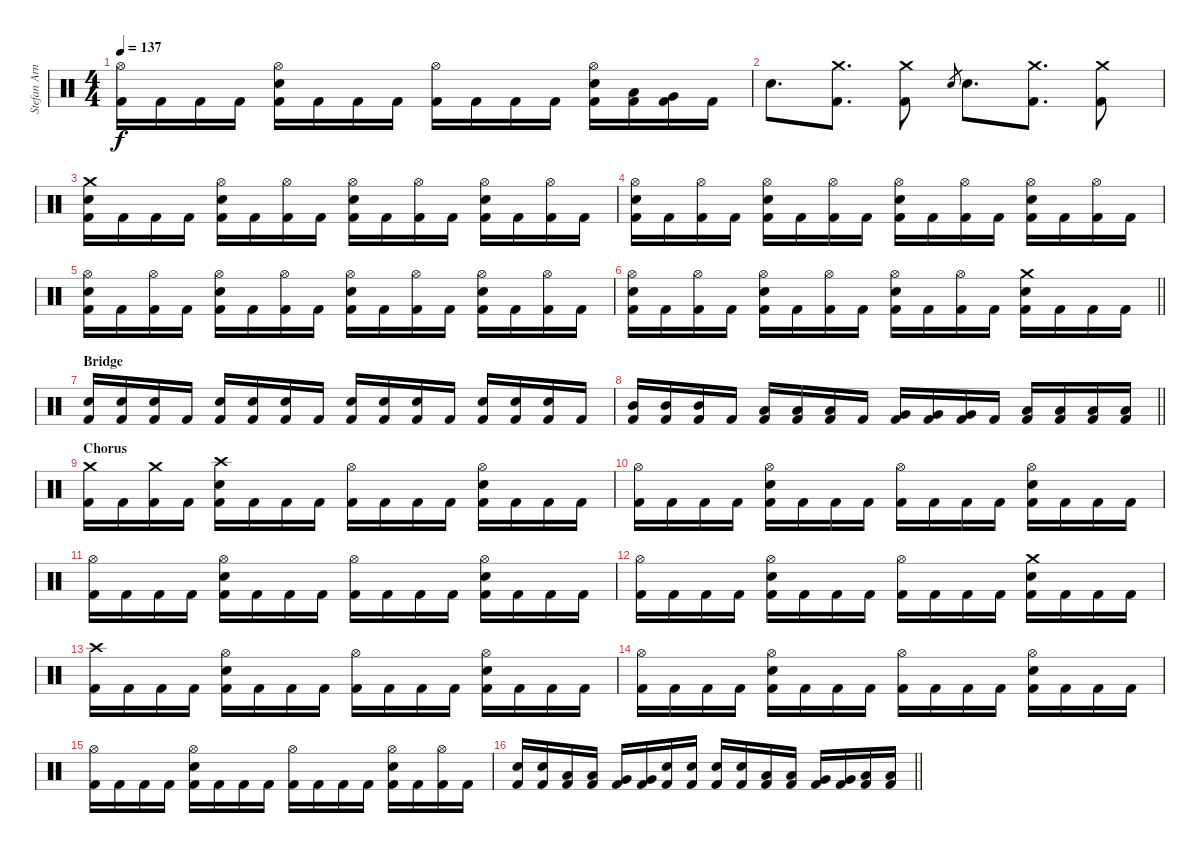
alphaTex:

\track ("Stefan Arnold" "Stefan Arn") {instrument percussion}
\staff {score}
\articulation defaults
\ts (4 4)
\tempo 137
\clef neutral
\ks c
("Hi-Hat (open)" "Kick (hit) 2").16{dy f} "Kick (hit) 2".16 "Kick (hit) 2".16 "Kick (hit) 2".16 ("Hi-Hat (open)" "Electric Snare (hit)" "Kick (hit) 2").16 "Kick (hit) 2".16 "Kick (hit) 2".16 "Kick (hit) 2".16 ("Hi-Hat (open)" "Kick (hit) 2").16 "Kick (hit) 2".16 "Kick (hit) 2".16 "Kick (hit) 2".16 ("Hi-Hat (open)" "Electric Snare (hit)" "Kick (hit) 2").16 ("Low Tom (hit)" "Kick (hit) 2").16 ("Very Low Tom (hit)" "Kick (hit) 2").16 "Kick (hit) 2".16 |
"Electric Snare (hit)".8{d} ("Crash medium (hit)" "Kick (hit) 2").8{d} ("Crash medium (hit)" "Kick (hit) 2").8 "Electric Snare (hit)".8{gr} "Electric Snare (hit)".8{d} ("Crash medium (hit)" "Kick (hit) 2").8{d} ("Crash medium (hit)" "Kick (hit) 2").8 |
("Crash medium (hit)" "Electric Snare (hit)" "Kick (hit) 2").16 "Kick (hit) 2".16 "Kick (hit) 2".16 "Kick (hit) 2".16 ("Hi-Hat (open)" "Electric Snare (hit)" "Kick (hit) 2").16 "Kick (hit) 2".16 ("Hi-Hat (open)" "Kick (hit) 2").16 "Kick (hit) 2".16 ("Hi-Hat (open)" "Electric Snare (hit)" "Kick (hit) 2").16 "Kick (hit) 2".16 ("Hi-Hat (open)" "Kick (hit) 2").16 "Kick (hit) 2".16 ("Hi-Hat (open)" "Electric Snare (hit)" "Kick (hit) 2").16 "Kick (hit) 2".16 ("Hi-Hat (open)" "Kick (hit) 2").16 "Kick (hit) 2".16 |
("Hi-Hat (open)" "Electric Snare (hit)" "Kick (hit) 2").16 "Kick (hit) 2".16 ("Hi-Hat (open)" "Kick (hit) 2").16 "Kick (hit) 2".16 ("Hi-Hat (open)" "Electric Snare (hit)" "Kick (hit) 2").16 "Kick (hit) 2".16 ("Hi-Hat (open)" "Kick (hit) 2").16 "Kick (hit) 2".16 ("Hi-Hat (open)" "Electric Snare (hit)" "Kick (hit) 2").16 "Kick (hit) 2".16 ("Hi-Hat (open)" "Kick (hit) 2").16 "Kick (hit) 2".16 ("Hi-Hat (open)" "Electric Snare (hit)" "Kick (hit) 2").16 "Kick (hit) 2".16 ("Hi-Hat (open)" "Kick (hit) 2").16 "Kick (hit) 2".16 |
("Hi-Hat (open)" "Electric Snare (hit)" "Kick (hit) 2").16 "Kick (hit) 2".16 ("Hi-Hat (open)" "Kick (hit) 2").16 "Kick (hit) 2".16 ("Hi-Hat (open)" "Electric Snare (hit)" "Kick (hit) 2").16 "Kick (hit) 2".16 ("Hi-Hat (open)" "Kick (hit) 2").16 "Kick (hit) 2".16 ("Hi-Hat (open)" "Electric Snare (hit)" "Kick (hit) 2").16 "Kick (hit) 2".16 ("Hi-Hat (open)" "Kick (hit) 2").16 "Kick (hit) 2".16 ("Hi-Hat (open)" "Electric Snare (hit)" "Kick (hit) 2").16 "Kick (hit) 2".16 ("Hi-Hat (open)" "Kick (hit) 2").16 "Kick (hit) 2".16 |
\barLineRight lightlight
("Hi-Hat (open)" "Electric Snare (hit)" "Kick (hit) 2").16 "Kick (hit) 2".16 ("Hi-Hat (open)" "Kick (hit) 2").16 "Kick (hit) 2".16 ("Hi-Hat (open)" "Electric Snare (hit)" "Kick (hit) 2").16 "Kick (hit) 2".16 ("Hi-Hat (open)" "Kick (hit) 2").16 "Kick (hit) 2".16 ("Hi-Hat (open)" "Electric Snare (hit)" "Kick (hit) 2").16 "Kick (hit) 2".16 ("Hi-Hat (open)" "Kick (hit) 2").16 "Kick (hit) 2".16 ("Crash medium (hit)" "Electric Snare (hit)" "Kick (hit) 2").16 "Kick (hit) 2".16 "Kick (hit) 2".16 "Kick (hit) 2".16 |
\section ("" "Bridge")
("Electric Snare (hit)" "Kick (hit) 2").16 ("Electric Snare (hit)" "Kick (hit) 2").16 ("Electric Snare (hit)" "Kick (hit) 2").16 "Kick (hit) 2".16 ("Electric Snare (hit)" "Kick (hit) 2").16 ("Electric Snare (hit)" "Kick (hit) 2").16 ("Electric Snare (hit)" "Kick (hit) 2").16 "Kick (hit) 2".16 ("Electric Snare (hit)" "Kick (hit) 2").16 ("Electric Snare (hit)" "Kick (hit) 2").16 ("Electric Snare (hit)" "Kick (hit) 2").16 "Kick (hit) 2".16 ("Electric Snare (hit)" "Kick (hit) 2").16 ("Electric Snare (hit)" "Kick (hit) 2").16 ("Electric Snare (hit)" "Kick (hit) 2").16 "Kick (hit) 2".16 |
\barLineRight lightlight
("Mid Tom (hit)" "Kick (hit) 2").16 ("Mid Tom (hit)" "Kick (hit) 2").16 ("Mid Tom (hit)" "Kick (hit) 2").16 "Kick (hit) 2".16 ("Low Tom (hit)" "Kick (hit) 2").16 ("Low Tom (hit)" "Kick (hit) 2").16 ("Low Tom (hit)" "Kick (hit) 2").16 "Kick (hit) 2".16 ("Very Low Tom (hit)" "Kick (hit) 2").16 ("Very Low Tom (hit)" "Kick (hit) 2").16 ("Very Low Tom (hit)" "Kick (hit) 2").16 "Kick (hit) 2".16 ("Low Floor Tom (hit)" "Kick (hit) 2").16 ("Low Floor Tom (hit)" "Kick (hit) 2").16 ("Low Floor Tom (hit)" "Kick (hit) 2").16 ("Low Floor Tom (hit)" "Kick (hit) 2").16 |
\section ("" "Chorus")
("Crash medium (hit)" "Kick (hit) 2").16 "Kick (hit) 2".16 ("Crash medium (hit)" "Kick (hit) 2").16 "Kick (hit) 2".16 ("Crash high (hit)" "Electric Snare (hit)" "Kick (hit) 2").16 "Kick (hit) 2".16 "Kick (hit) 2".16 "Kick (hit) 2".16 ("Hi-Hat (open)" "Kick (hit) 2").16 "Kick (hit) 2".16 "Kick (hit) 2".16 "Kick (hit) 2".16 ("Hi-Hat (open)" "Electric Snare (hit)" "Kick (hit) 2").16 "Kick (hit) 2".16 "Kick (hit) 2".16 "Kick (hit) 2".16 |
("Hi-Hat (open)" "Kick (hit) 2").16 "Kick (hit) 2".16 "Kick (hit) 2".16 "Kick (hit) 2".16 ("Hi-Hat (open)" "Electric Snare (hit)" "Kick (hit) 2").16 "Kick (hit) 2".16 "Kick (hit) 2".16 "Kick (hit) 2".16 ("Hi-Hat (open)" "Kick (hit) 2").16 "Kick (hit) 2".16 "Kick (hit) 2".16 "Kick (hit) 2".16 ("Hi-Hat (open)" "Electric Snare (hit)" "Kick (hit) 2").16 "Kick (hit) 2".16 "Kick (hit) 2".16 "Kick (hit) 2".16 |
("Hi-Hat (open)" "Kick (hit) 2").16 "Kick (hit) 2".16 "Kick (hit) 2".16 "Kick (hit) 2".16 ("Hi-Hat (open)" "Electric Snare (hit)" "Kick (hit) 2").16 "Kick (hit) 2".16 "Kick (hit) 2".16 "Kick (hit) 2".16 ("Hi-Hat (open)" "Kick (hit) 2").16 "Kick (hit) 2".16 "Kick (hit) 2".16 "Kick (hit) 2".16 ("Hi-Hat (open)" "Electric Snare (hit)" "Kick (hit) 2").16 "Kick (hit) 2".16 "Kick (hit) 2".16 "Kick (hit) 2".16 |
("Hi-Hat (open)" "Kick (hit) 2").16 "Kick (hit) 2".16 "Kick (hit) 2".16 "Kick (hit) 2".16 ("Hi-Hat (open)" "Electric Snare (hit)" "Kick (hit) 2").16 "Kick (hit) 2".16 "Kick (hit) 2".16 "Kick (hit) 2".16 ("Hi-Hat (open)" "Kick (hit) 2").16 "Kick (hit) 2".16 "Kick (hit) 2".16 "Kick (hit) 2".16 ("Crash medium (hit)" "Electric Snare (hit)" "Kick (hit) 2").16 "Kick (hit) 2".16 "Kick (hit) 2".16 "Kick (hit) 2".16 |
("Crash high (hit)" "Kick (hit) 2").16 "Kick (hit) 2".16 "Kick (hit) 2".16 "Kick (hit) 2".16 ("Hi-Hat (open)" "Electric Snare (hit)" "Kick (hit) 2").16 "Kick (hit) 2".16 "Kick (hit) 2".16 "Kick (hit) 2".16 ("Hi-Hat (open)" "Kick (hit) 2").16 "Kick (hit) 2".16 "Kick (hit) 2".16 "Kick (hit) 2".16 ("Hi-Hat (open)" "Electric Snare (hit)" "Kick (hit) 2").16 "Kick (hit) 2".16 "Kick (hit) 2".16 "Kick (hit) 2".16 |
("Hi-Hat (open)" "Kick (hit) 2").16 "Kick (hit) 2".16 "Kick (hit) 2".16 "Kick (hit) 2".16 ("Hi-Hat (open)" "Electric Snare (hit)" "Kick (hit) 2").16 "Kick (hit) 2".16 "Kick (hit) 2".16 "Kick (hit) 2".16 ("Hi-Hat (open)" "Kick (hit) 2").16 "Kick (hit) 2".16 "Kick (hit) 2".16 "Kick (hit) 2".16 ("Hi-Hat (open)" "Electric Snare (hit)" "Kick (hit) 2").16 "Kick (hit) 2".16 "Kick (hit) 2".16 "Kick (hit) 2".16 |
("Hi-Hat (open)" "Kick (hit) 2").16 "Kick (hit) 2".16 "Kick (hit) 2".16 "Kick (hit) 2".16 ("Hi-Hat (open)" "Electric Snare (hit)" "Kick (hit) 2").16 "Kick (hit) 2".16 "Kick (hit) 2".16 "Kick (hit) 2".16 ("Hi-Hat (open)" "Kick (hit) 2").16 "Kick (hit) 2".16 "Kick (hit) 2".16 "Kick (hit) 2".16 ("Hi-Hat (open)" "Electric Snare (hit)" "Kick (hit) 2").16 "Kick (hit) 2".16 ("Hi-Hat (open)" "Kick (hit) 2").16 "Kick (hit) 2".16 |
\barLineRight lightlight
("Electric Snare (hit)" "Kick (hit) 2").16 ("Electric Snare (hit)" "Kick (hit) 2").16 ("Low Tom (hit)" "Kick (hit) 2").16 ("Low Tom (hit)" "Kick (hit) 2").16 ("Very Low Tom (hit)" "Kick (hit) 2").16 ("Very Low Tom (hit)" "Kick (hit) 2").16 ("Electric Snare (hit)" "Kick (hit) 2").16 ("Electric Snare (hit)" "Kick (hit) 2").16 ("Electric Snare (hit)" "Kick (hit) 2").16 ("Electric Snare (hit)" "Kick (hit) 2").16 ("Low Tom (hit)" "Kick (hit) 2").16 ("Low Tom (hit)" "Kick (hit) 2").16 ("Very Low Tom (hit)" "Kick (hit) 2").16 ("Very Low Tom (hit)" "Kick (hit) 2").16 ("Low Floor Tom (hit)" "Kick (hit) 2").16 ("Low Floor Tom (hit)" "Kick (hit) 2").16
